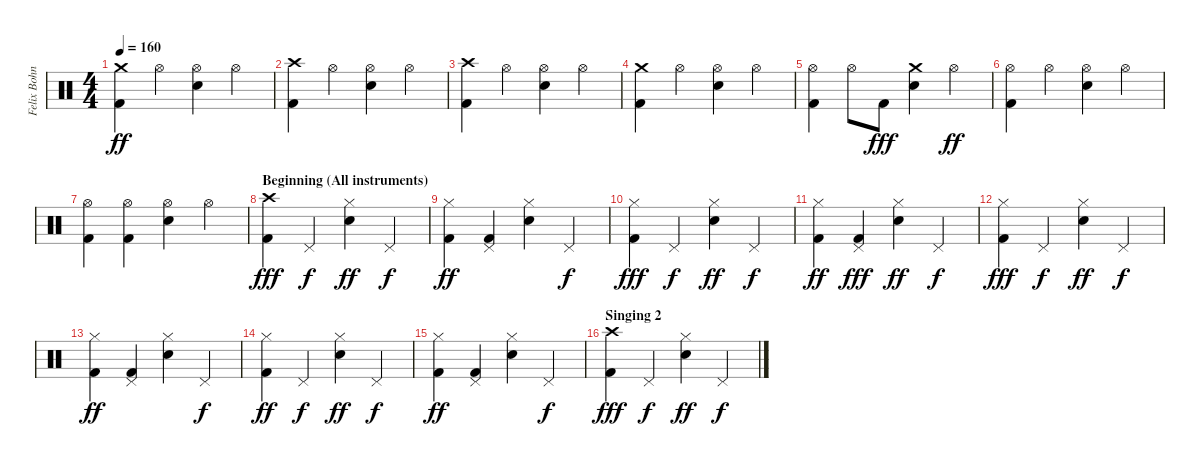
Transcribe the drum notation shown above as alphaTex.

\track ("Felix Bohnke" "Felix Bohn") {instrument percussion}
\staff {score}
\articulation defaults
\ts (4 4)
\tempo 160
\clef neutral
\ks c
("Kick (hit) 2" "Crash medium (hit)").4{dy ff} "Hi-Hat (open)".4 ("Snare (hit) 2" "Hi-Hat (open)").4 "Hi-Hat (open)".4 |
("Kick (hit) 2" "Crash high (hit)").4 "Hi-Hat (open)".4 ("Snare (hit) 2" "Hi-Hat (open)").4 "Hi-Hat (open)".4 |
("Kick (hit) 2" "Crash high (hit)").4 "Hi-Hat (open)".4 ("Snare (hit) 2" "Hi-Hat (open)").4 "Hi-Hat (open)".4 |
("Kick (hit) 2" "Crash medium (hit)").4 "Hi-Hat (open)".4 ("Snare (hit) 2" "Hi-Hat (open)").4 "Hi-Hat (open)".4 |
("Kick (hit) 2" "Hi-Hat (open)").4 "Hi-Hat (open)".8 "Kick (hit) 2".8{dy fff} ("Snare (hit) 2" "Crash medium (hit)").4 "Hi-Hat (open)".4{dy ff} |
("Kick (hit) 2" "Hi-Hat (open)").4 "Hi-Hat (open)".4 ("Snare (hit) 2" "Hi-Hat (open)").4 "Hi-Hat (open)".4 |
("Kick (hit) 2" "Hi-Hat (open)").4 ("Kick (hit) 2" "Hi-Hat (open)").4 ("Snare (hit) 2" "Hi-Hat (open)").4 "Hi-Hat (open)".4 |
\section ("" "Beginning (All instruments)")
("Kick (hit) 2" "Crash high (hit)").4{dy fff} "Pedal Hi-Hat (hit)".4{dy f} ("Snare (hit) 2" "Hi-Hat (closed)").4{dy ff} "Pedal Hi-Hat (hit)".4{dy f} |
("Kick (hit) 2" "Hi-Hat (closed)").4{dy ff} ("Kick (hit) 2" "Pedal Hi-Hat (hit)").4 ("Snare (hit) 2" "Hi-Hat (closed)").4 "Pedal Hi-Hat (hit)".4{dy f} |
("Kick (hit) 2" "Hi-Hat (closed)").4{dy fff} "Pedal Hi-Hat (hit)".4{dy f} ("Snare (hit) 2" "Hi-Hat (closed)").4{dy ff} "Pedal Hi-Hat (hit)".4{dy f} |
("Kick (hit) 2" "Hi-Hat (closed)").4{dy ff} ("Kick (hit) 2" "Pedal Hi-Hat (hit)").4{dy fff} ("Snare (hit) 2" "Hi-Hat (closed)").4{dy ff} "Pedal Hi-Hat (hit)".4{dy f} |
("Kick (hit) 2" "Hi-Hat (closed)").4{dy fff} "Pedal Hi-Hat (hit)".4{dy f} ("Snare (hit) 2" "Hi-Hat (closed)").4{dy ff} "Pedal Hi-Hat (hit)".4{dy f} |
("Kick (hit) 2" "Hi-Hat (closed)").4{dy ff} ("Kick (hit) 2" "Pedal Hi-Hat (hit)").4 ("Snare (hit) 2" "Hi-Hat (closed)").4 "Pedal Hi-Hat (hit)".4{dy f} |
("Kick (hit) 2" "Hi-Hat (closed)").4{dy ff} "Pedal Hi-Hat (hit)".4{dy f} ("Snare (hit) 2" "Hi-Hat (closed)").4{dy ff} "Pedal Hi-Hat (hit)".4{dy f} |
("Kick (hit) 2" "Hi-Hat (closed)").4{dy ff} ("Kick (hit) 2" "Pedal Hi-Hat (hit)").4 ("Snare (hit) 2" "Hi-Hat (closed)").4 "Pedal Hi-Hat (hit)".4{dy f} |
\section ("" "Singing 2")
("Kick (hit) 2" "Crash high (hit)").4{dy fff} "Pedal Hi-Hat (hit)".4{dy f} ("Snare (hit) 2" "Hi-Hat (closed)").4{dy ff} "Pedal Hi-Hat (hit)".4{dy f}
